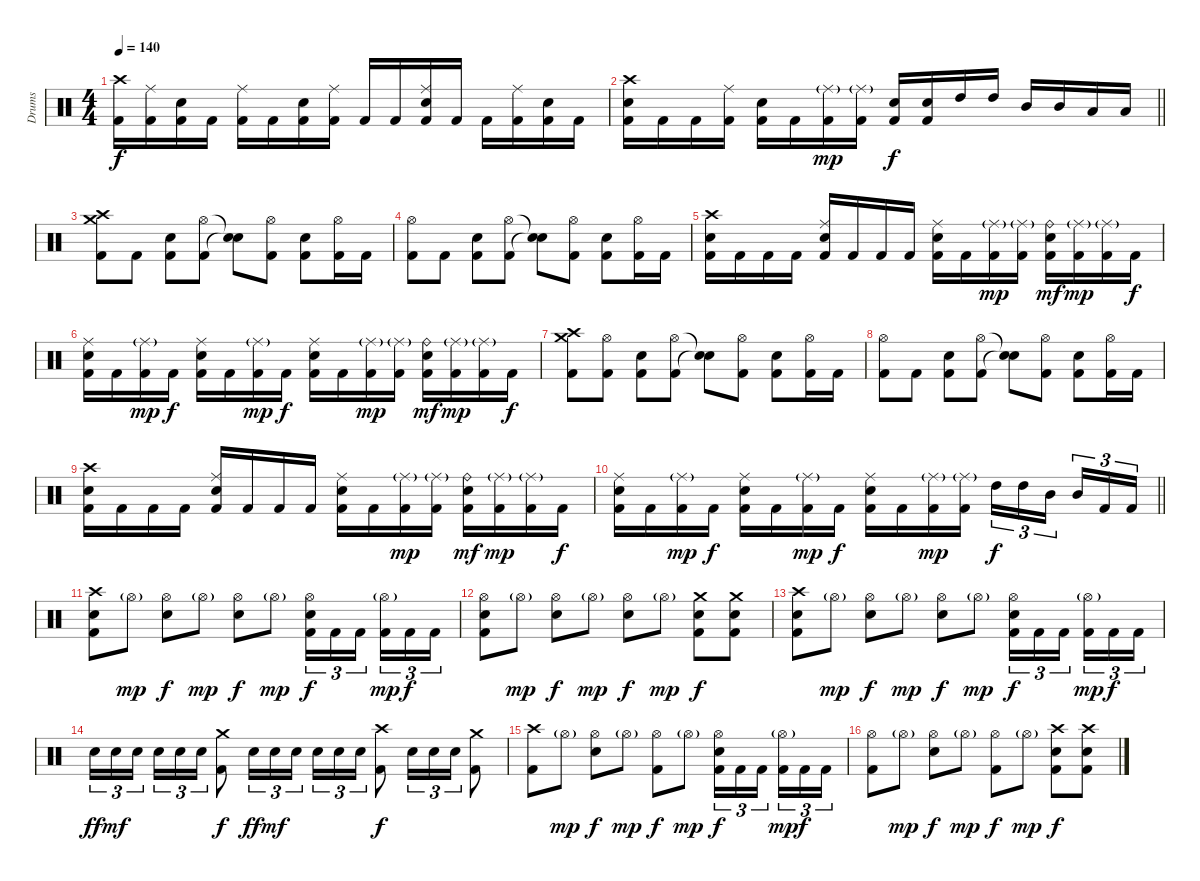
\track ("Drums" "Drums") {instrument percussion}
\staff {score}
\articulation defaults
\ts (4 4)
\tempo 140
\clef neutral
\ks c
("Crash high (hit)" "Kick (hit) 2").16{dy f} ("Ride (middle)" "Kick (hit) 2").16 ("Electric Snare (hit)" "Kick (hit) 2").16 "Kick (hit) 2".16 ("Ride (middle)" "Kick (hit) 2").16 "Kick (hit) 2".16 ("Electric Snare (hit)" "Kick (hit) 2").16 ("Ride (middle)" "Kick (hit) 2").16 "Kick (hit) 2".16 "Kick (hit) 2".16 ("Ride (middle)" "Electric Snare (hit)" "Kick (hit) 2").16 "Kick (hit) 2".16 "Kick (hit) 2".16 ("Ride (middle)" "Kick (hit) 2").16 ("Electric Snare (hit)" "Kick (hit) 2").16 "Kick (hit) 2".16 |
\barLineRight lightlight
("Crash high (hit)" "Electric Snare (hit)" "Kick (hit) 2").16 "Kick (hit) 2".16 "Kick (hit) 2".16 ("Ride (middle)" "Kick (hit) 2").16 ("Electric Snare (hit)" "Kick (hit) 2").16 "Kick (hit) 2".16 ("Ride (middle)"{g} "Kick (hit) 2").16{dy mp} ("Ride (middle)"{g} "Kick (hit) 2").16 ("Electric Snare (hit)" "Kick (hit) 2").16{dy f} ("Electric Snare (hit)" "Kick (hit) 2").16 "High Tom (hit)".16 "High Tom (hit)".16 "Mid Tom (hit)".16 "Mid Tom (hit)".16 "Low Tom (hit)".16 "Low Tom (hit)".16 |
("Crash high (hit)" "Crash medium (hit)" "Kick (hit) 2").8 "Kick (hit) 2".8 ("Electric Snare (hit)" "Kick (hit) 2").8 ("Hi-Hat (open)" "Kick (hit) 2").8 ("Snare (hit)"{t} "Snare (hit)"{t}).8 ("Hi-Hat (open)" "Kick (hit) 2").8 ("Electric Snare (hit)" "Kick (hit) 2").8 ("Hi-Hat (open)" "Kick (hit) 2").16 "Kick (hit) 2".16 |
("Hi-Hat (open)" "Kick (hit) 2").8 "Kick (hit) 2".8 ("Electric Snare (hit)" "Kick (hit) 2").8 ("Hi-Hat (open)" "Kick (hit) 2").8 ("Snare (hit)"{t} "Snare (hit)"{t}).8 ("Hi-Hat (open)" "Kick (hit) 2").8 ("Electric Snare (hit)" "Kick (hit) 2").8 ("Hi-Hat (open)" "Kick (hit) 2").16 "Kick (hit) 2".16 |
("Crash high (hit)" "Electric Snare (hit)" "Kick (hit) 2").16 "Kick (hit) 2".16 "Kick (hit) 2".16 "Kick (hit) 2".16 ("Ride (middle)" "Electric Snare (hit)" "Kick (hit) 2").16 "Kick (hit) 2".16 "Kick (hit) 2".16 "Kick (hit) 2".16 ("Ride (middle)" "Electric Snare (hit)" "Kick (hit) 2").16 "Kick (hit) 2".16 ("Ride (middle)"{g} "Kick (hit) 2").16{dy mp} ("Ride (middle)"{g} "Kick (hit) 2").16 ("Ride (bell)" "Electric Snare (hit)" "Kick (hit) 2").16{dy mf} ("Ride (middle)"{g} "Kick (hit) 2").16{dy mp} ("Ride (middle)"{g} "Kick (hit) 2").16 "Kick (hit) 2".16{dy f} |
("Ride (middle)" "Electric Snare (hit)" "Kick (hit) 2").16 "Kick (hit) 2".16 ("Ride (middle)"{g} "Kick (hit) 2").16{dy mp} "Kick (hit) 2".16{dy f} ("Ride (middle)" "Electric Snare (hit)" "Kick (hit) 2").16 "Kick (hit) 2".16 ("Ride (middle)"{g} "Kick (hit) 2").16{dy mp} "Kick (hit) 2".16{dy f} ("Ride (middle)" "Electric Snare (hit)" "Kick (hit) 2").16 "Kick (hit) 2".16 ("Ride (middle)"{g} "Kick (hit) 2").16{dy mp} ("Ride (middle)"{g} "Kick (hit) 2").16 ("Ride (bell)" "Electric Snare (hit)" "Kick (hit) 2").16{dy mf} ("Ride (middle)"{g} "Kick (hit) 2").16{dy mp} ("Ride (middle)"{g} "Kick (hit) 2").16 "Kick (hit) 2".16{dy f} |
("Crash high (hit)" "Crash medium (hit)" "Kick (hit) 2").8 ("Hi-Hat (open)" "Kick (hit) 2").8 ("Electric Snare (hit)" "Kick (hit) 2").8 ("Hi-Hat (open)" "Kick (hit) 2").8 ("Snare (hit)"{t} "Snare (hit)"{t}).8 ("Hi-Hat (open)" "Kick (hit) 2").8 ("Electric Snare (hit)" "Kick (hit) 2").8 ("Hi-Hat (open)" "Kick (hit) 2").16 "Kick (hit) 2".16 |
("Hi-Hat (open)" "Kick (hit) 2").8 "Kick (hit) 2".8 ("Electric Snare (hit)" "Kick (hit) 2").8 ("Hi-Hat (open)" "Kick (hit) 2").8 ("Snare (hit)"{t} "Snare (hit)"{t}).8 ("Hi-Hat (open)" "Kick (hit) 2").8 ("Electric Snare (hit)" "Kick (hit) 2").8 ("Hi-Hat (open)" "Kick (hit) 2").16 "Kick (hit) 2".16 |
("Crash high (hit)" "Electric Snare (hit)" "Kick (hit) 2").16 "Kick (hit) 2".16 "Kick (hit) 2".16 "Kick (hit) 2".16 ("Ride (middle)" "Electric Snare (hit)" "Kick (hit) 2").16 "Kick (hit) 2".16 "Kick (hit) 2".16 "Kick (hit) 2".16 ("Ride (middle)" "Electric Snare (hit)" "Kick (hit) 2").16 "Kick (hit) 2".16 ("Ride (middle)"{g} "Kick (hit) 2").16{dy mp} ("Ride (middle)"{g} "Kick (hit) 2").16 ("Ride (bell)" "Electric Snare (hit)" "Kick (hit) 2").16{dy mf} ("Ride (middle)"{g} "Kick (hit) 2").16{dy mp} ("Ride (middle)"{g} "Kick (hit) 2").16 "Kick (hit) 2".16{dy f} |
\barLineRight lightlight
("Ride (middle)" "Electric Snare (hit)" "Kick (hit) 2").16 "Kick (hit) 2".16 ("Ride (middle)"{g} "Kick (hit) 2").16{dy mp} "Kick (hit) 2".16{dy f} ("Ride (middle)" "Electric Snare (hit)" "Kick (hit) 2").16 "Kick (hit) 2".16 ("Ride (middle)"{g} "Kick (hit) 2").16{dy mp} "Kick (hit) 2".16{dy f} ("Ride (middle)" "Electric Snare (hit)" "Kick (hit) 2").16 "Kick (hit) 2".16 ("Ride (middle)"{g} "Kick (hit) 2").16{dy mp} ("Ride (middle)"{g} "Kick (hit) 2").16 "High Tom (hit)".16{tu (3 2) dy f} "High Tom (hit)".16{tu (3 2)} "Mid Tom (hit)".16{tu (3 2)} "Mid Tom (hit)".16{tu (3 2)} "Kick (hit) 2".16{tu (3 2)} "Kick (hit) 2".16{tu (3 2)} |
("Crash high (hit)" "Electric Snare (hit)" "Kick (hit) 2").8 "Hi-Hat (open)"{g}.8{dy mp} ("Hi-Hat (open)" "Electric Snare (hit)").8{dy f} "Hi-Hat (open)"{g}.8{dy mp} ("Hi-Hat (open)" "Electric Snare (hit)").8{dy f} "Hi-Hat (open)"{g}.8{dy mp} ("Hi-Hat (open)" "Electric Snare (hit)" "Kick (hit) 2").16{tu (3 2) dy f} "Kick (hit) 2".16{tu (3 2)} "Kick (hit) 2".16{tu (3 2)} ("Hi-Hat (open)"{g} "Kick (hit) 2").16{tu (3 2) dy mp} "Kick (hit) 2".16{tu (3 2) dy f} "Kick (hit) 2".16{tu (3 2)} |
("Hi-Hat (open)" "Electric Snare (hit)" "Kick (hit) 2").8 "Hi-Hat (open)"{g}.8{dy mp} ("Hi-Hat (open)" "Electric Snare (hit)").8{dy f} "Hi-Hat (open)"{g}.8{dy mp} ("Hi-Hat (open)" "Electric Snare (hit)").8{dy f} "Hi-Hat (open)"{g}.8{dy mp} ("Crash medium (hit)" "Electric Snare (hit)" "Kick (hit) 2").8{dy f} ("Crash medium (hit)" "Electric Snare (hit)" "Kick (hit) 2").8 |
("Crash high (hit)" "Electric Snare (hit)" "Kick (hit) 2").8 "Hi-Hat (open)"{g}.8{dy mp} ("Hi-Hat (open)" "Electric Snare (hit)").8{dy f} "Hi-Hat (open)"{g}.8{dy mp} ("Hi-Hat (open)" "Electric Snare (hit)").8{dy f} "Hi-Hat (open)"{g}.8{dy mp} ("Hi-Hat (open)" "Electric Snare (hit)" "Kick (hit) 2").16{tu (3 2) dy f} "Kick (hit) 2".16{tu (3 2)} "Kick (hit) 2".16{tu (3 2)} ("Hi-Hat (open)"{g} "Kick (hit) 2").16{tu (3 2) dy mp} "Kick (hit) 2".16{tu (3 2) dy f} "Kick (hit) 2".16{tu (3 2)} |
"Electric Snare (hit)".16{tu (3 2) dy ff} "Electric Snare (hit)".16{tu (3 2) dy mf} "Electric Snare (hit)".16{tu (3 2)} "Electric Snare (hit)".16{tu (3 2)} "Electric Snare (hit)".16{tu (3 2)} "Electric Snare (hit)".16{tu (3 2)} ("Crash medium (hit)" "Kick (hit) 2").8{dy f} "Electric Snare (hit)".16{tu (3 2) dy ff} "Electric Snare (hit)".16{tu (3 2) dy mf} "Electric Snare (hit)".16{tu (3 2)} "Electric Snare (hit)".16{tu (3 2)} "Electric Snare (hit)".16{tu (3 2)} "Electric Snare (hit)".16{tu (3 2)} ("Crash high (hit)" "Kick (hit) 2").8{dy f} "Electric Snare (hit)".16{tu (3 2)} "Electric Snare (hit)".16{tu (3 2)} "Electric Snare (hit)".16{tu (3 2)} ("Crash medium (hit)" "Kick (hit) 2").8 |
("Crash high (hit)" "Kick (hit) 2").8 "Hi-Hat (open)"{g}.8{dy mp} ("Hi-Hat (open)" "Electric Snare (hit)").8{dy f} "Hi-Hat (open)"{g}.8{dy mp} ("Hi-Hat (open)" "Kick (hit) 2").8{dy f} "Hi-Hat (open)"{g}.8{dy mp} ("Hi-Hat (open)" "Electric Snare (hit)" "Kick (hit) 2").16{tu (3 2) dy f} "Kick (hit) 2".16{tu (3 2)} "Kick (hit) 2".16{tu (3 2)} ("Hi-Hat (open)"{g} "Kick (hit) 2").16{tu (3 2) dy mp} "Kick (hit) 2".16{tu (3 2) dy f} "Kick (hit) 2".16{tu (3 2)} |
("Hi-Hat (open)" "Kick (hit) 2").8 "Hi-Hat (open)"{g}.8{dy mp} ("Hi-Hat (open)" "Electric Snare (hit)").8{dy f} "Hi-Hat (open)"{g}.8{dy mp} ("Hi-Hat (open)" "Kick (hit) 2").8{dy f} "Hi-Hat (open)"{g}.8{dy mp} ("Crash high (hit)" "Electric Snare (hit)" "Kick (hit) 2").8{dy f} ("Crash high (hit)" "Electric Snare (hit)" "Kick (hit) 2").8
